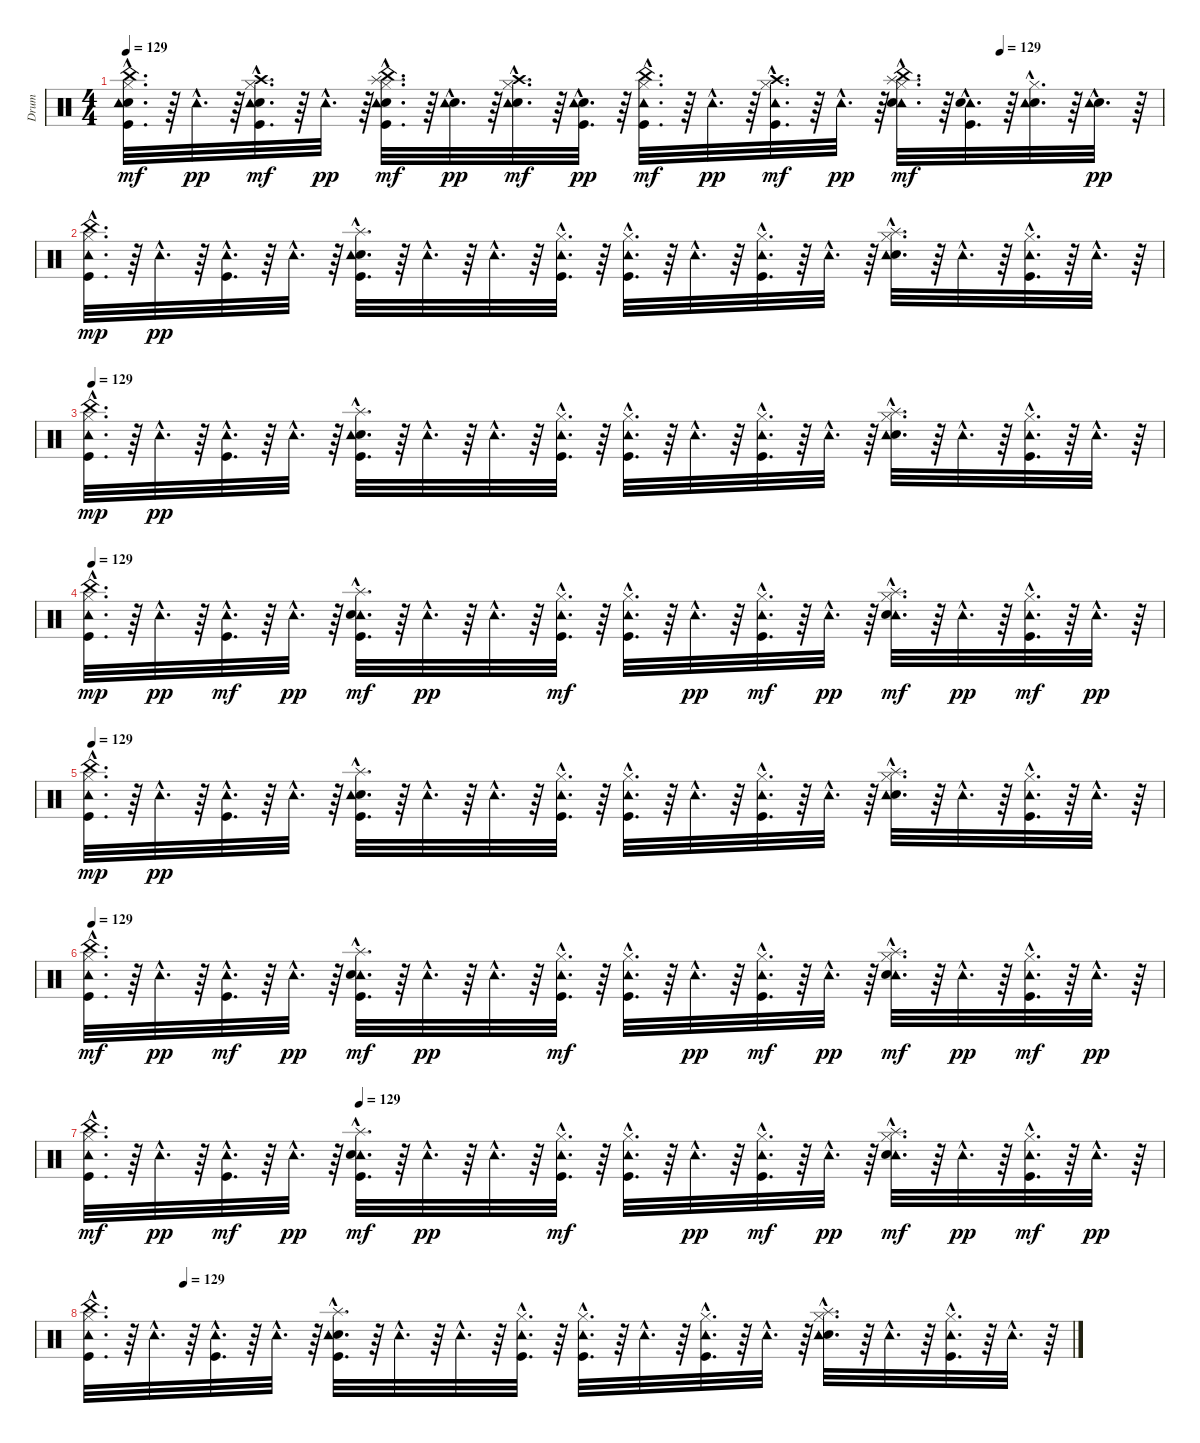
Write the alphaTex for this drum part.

\track ("Drum" "Drum") {instrument percussion}
\staff {score}
\articulation defaults
\ts (4 4)
\tempo 129
\tempo (129 0.84375)
\clef neutral
\ks c
("China (hit)"{hac} "Snare (hit) 2"{hac} "Tambourine (hit)"{hac} "Kick (hit)"{hac} "Hi-Hat (closed)"{hac}).32{d dy mf} r.64 "Tambourine (hit)"{hac}.32{d dy pp} r.64 ("Crash high (hit)"{hac} "Snare (hit) 2"{hac} "Kick (hit)"{hac} "Tambourine (hit)"{hac} "Hi-Hat (closed)"{hac}).32{d dy mf} r.64 "Tambourine (hit)"{hac}.32{d dy pp} r.64 ("China (hit)"{hac} "Snare (hit) 2"{hac} "Splash (hit)"{hac} "Kick (hit)"{hac} "Tambourine (hit)"{hac} "Hi-Hat (closed)"{hac}).32{d dy mf} r.64 ("Snare (hit) 2"{hac} "Tambourine (hit)"{hac}).32{d dy pp} r.64 ("Crash high (hit)"{hac} "Snare (hit) 2"{hac} "Tambourine (hit)"{hac} "Hi-Hat (closed)"{hac}).32{d dy mf} r.64 ("Snare (hit) 2"{hac} "Kick (hit)"{hac} "Tambourine (hit)"{hac}).32{d dy pp} r.64 ("China (hit)"{hac} "Tambourine (hit)"{hac} "Hi-Hat (closed)"{hac} "Kick (hit)"{hac}).32{d dy mf} r.64 "Tambourine (hit)"{hac}.32{d dy pp} r.64 ("Crash high (hit)"{hac} "Tambourine (hit)"{hac} "Hi-Hat (closed)"{hac} "Kick (hit)"{hac}).32{d dy mf} r.64 "Tambourine (hit)"{hac}.32{d dy pp} r.64 ("China (hit)"{hac} "Tambourine (hit)"{hac} "Hi-Hat (closed)"{hac} "Snare (hit) 2"{hac} "Splash (hit)"{hac}).32{d dy mf} r.64 ("Tambourine (hit)"{hac} "Snare (hit) 2"{hac} "Kick (hit)"{hac}).32{d} r.64 ("Snare (hit) 2"{hac} "Tambourine (hit)"{hac} "Hi-Hat (closed)"{hac}).32{d} r.64 ("Snare (hit) 2"{hac} "Tambourine (hit)"{hac}).32{d dy pp} r.64 |
("Kick (hit)"{hac} "Hi-Hat (closed)"{hac} "Tambourine (hit)"{hac} "China (hit)"{hac}).32{d dy mp} r.64 "Tambourine (hit)"{hac}.32{d dy pp} r.64 ("Kick (hit)"{hac} "Tambourine (hit)"{hac}).32{d} r.64 "Tambourine (hit)"{hac}.32{d} r.64 ("Splash (hit)"{hac} "Snare (hit) 2"{hac} "Kick (hit)"{hac} "Tambourine (hit)"{hac}).32{d} r.64 "Tambourine (hit)"{hac}.32{d} r.64 "Tambourine (hit)"{hac}.32{d} r.64 ("Kick (hit)"{hac} "Hi-Hat (closed)"{hac} "Tambourine (hit)"{hac}).32{d} r.64 ("Kick (hit)"{hac} "Hi-Hat (closed)"{hac} "Tambourine (hit)"{hac}).32{d} r.64 "Tambourine (hit)"{hac}.32{d} r.64 ("Kick (hit)"{hac} "Hi-Hat (closed)"{hac} "Tambourine (hit)"{hac}).32{d} r.64 "Tambourine (hit)"{hac}.32{d} r.64 ("Splash (hit)"{hac} "Snare (hit) 2"{hac} "Hi-Hat (closed)"{hac} "Tambourine (hit)"{hac}).32{d} r.64 "Tambourine (hit)"{hac}.32{d} r.64 ("Kick (hit)"{hac} "Hi-Hat (closed)"{hac} "Tambourine (hit)"{hac}).32{d} r.64 "Tambourine (hit)"{hac}.32{d} r.64 |
\tempo 129
("Kick (hit)"{hac} "Hi-Hat (closed)"{hac} "Tambourine (hit)"{hac} "China (hit)"{hac}).32{d dy mp} r.64 "Tambourine (hit)"{hac}.32{d dy pp} r.64 ("Kick (hit)"{hac} "Tambourine (hit)"{hac}).32{d} r.64 "Tambourine (hit)"{hac}.32{d} r.64 ("Splash (hit)"{hac} "Snare (hit) 2"{hac} "Kick (hit)"{hac} "Tambourine (hit)"{hac}).32{d} r.64 "Tambourine (hit)"{hac}.32{d} r.64 "Tambourine (hit)"{hac}.32{d} r.64 ("Kick (hit)"{hac} "Hi-Hat (closed)"{hac} "Tambourine (hit)"{hac}).32{d} r.64 ("Kick (hit)"{hac} "Hi-Hat (closed)"{hac} "Tambourine (hit)"{hac}).32{d} r.64 "Tambourine (hit)"{hac}.32{d} r.64 ("Kick (hit)"{hac} "Hi-Hat (closed)"{hac} "Tambourine (hit)"{hac}).32{d} r.64 "Tambourine (hit)"{hac}.32{d} r.64 ("Splash (hit)"{hac} "Snare (hit) 2"{hac} "Hi-Hat (closed)"{hac} "Tambourine (hit)"{hac}).32{d} r.64 "Tambourine (hit)"{hac}.32{d} r.64 ("Kick (hit)"{hac} "Hi-Hat (closed)"{hac} "Tambourine (hit)"{hac}).32{d} r.64 "Tambourine (hit)"{hac}.32{d} r.64 |
\tempo 129
("Tambourine (hit)"{hac} "Hi-Hat (closed)"{hac} "Kick (hit)"{hac} "China (hit)"{hac}).32{d dy mp} r.64 "Tambourine (hit)"{hac}.32{d dy pp} r.64 ("Tambourine (hit)"{hac} "Kick (hit)"{hac}).32{d dy mf} r.64 "Tambourine (hit)"{hac}.32{d dy pp} r.64 ("Tambourine (hit)"{hac} "Kick (hit)"{hac} "Snare (hit) 2"{hac} "Splash (hit)"{hac}).32{d dy mf} r.64 "Tambourine (hit)"{hac}.32{d dy pp} r.64 "Tambourine (hit)"{hac}.32{d} r.64 ("Tambourine (hit)"{hac} "Hi-Hat (closed)"{hac} "Kick (hit)"{hac}).32{d dy mf} r.64 ("Tambourine (hit)"{hac} "Hi-Hat (closed)"{hac} "Kick (hit)"{hac}).32{d} r.64 "Tambourine (hit)"{hac}.32{d dy pp} r.64 ("Tambourine (hit)"{hac} "Hi-Hat (closed)"{hac} "Kick (hit)"{hac}).32{d dy mf} r.64 "Tambourine (hit)"{hac}.32{d dy pp} r.64 ("Tambourine (hit)"{hac} "Hi-Hat (closed)"{hac} "Snare (hit) 2"{hac} "Splash (hit)"{hac}).32{d dy mf} r.64 "Tambourine (hit)"{hac}.32{d dy pp} r.64 ("Tambourine (hit)"{hac} "Hi-Hat (closed)"{hac} "Kick (hit)"{hac}).32{d dy mf} r.64 "Tambourine (hit)"{hac}.32{d dy pp} r.64 |
\tempo 129
("Kick (hit)"{hac} "Hi-Hat (closed)"{hac} "Tambourine (hit)"{hac} "China (hit)"{hac}).32{d dy mp} r.64 "Tambourine (hit)"{hac}.32{d dy pp} r.64 ("Kick (hit)"{hac} "Tambourine (hit)"{hac}).32{d} r.64 "Tambourine (hit)"{hac}.32{d} r.64 ("Splash (hit)"{hac} "Snare (hit) 2"{hac} "Kick (hit)"{hac} "Tambourine (hit)"{hac}).32{d} r.64 "Tambourine (hit)"{hac}.32{d} r.64 "Tambourine (hit)"{hac}.32{d} r.64 ("Kick (hit)"{hac} "Hi-Hat (closed)"{hac} "Tambourine (hit)"{hac}).32{d} r.64 ("Kick (hit)"{hac} "Hi-Hat (closed)"{hac} "Tambourine (hit)"{hac}).32{d} r.64 "Tambourine (hit)"{hac}.32{d} r.64 ("Kick (hit)"{hac} "Hi-Hat (closed)"{hac} "Tambourine (hit)"{hac}).32{d} r.64 "Tambourine (hit)"{hac}.32{d} r.64 ("Splash (hit)"{hac} "Snare (hit) 2"{hac} "Hi-Hat (closed)"{hac} "Tambourine (hit)"{hac}).32{d} r.64 "Tambourine (hit)"{hac}.32{d} r.64 ("Kick (hit)"{hac} "Hi-Hat (closed)"{hac} "Tambourine (hit)"{hac}).32{d} r.64 "Tambourine (hit)"{hac}.32{d} r.64 |
\tempo 129
("China (hit)"{hac} "Tambourine (hit)"{hac} "Hi-Hat (closed)"{hac} "Kick (hit)"{hac}).32{d dy mf} r.64 "Tambourine (hit)"{hac}.32{d dy pp} r.64 ("Tambourine (hit)"{hac} "Kick (hit)"{hac}).32{d dy mf} r.64 "Tambourine (hit)"{hac}.32{d dy pp} r.64 ("Tambourine (hit)"{hac} "Kick (hit)"{hac} "Snare (hit) 2"{hac} "Splash (hit)"{hac}).32{d dy mf} r.64 "Tambourine (hit)"{hac}.32{d dy pp} r.64 "Tambourine (hit)"{hac}.32{d} r.64 ("Tambourine (hit)"{hac} "Hi-Hat (closed)"{hac} "Kick (hit)"{hac}).32{d dy mf} r.64 ("Tambourine (hit)"{hac} "Hi-Hat (closed)"{hac} "Kick (hit)"{hac}).32{d} r.64 "Tambourine (hit)"{hac}.32{d dy pp} r.64 ("Tambourine (hit)"{hac} "Hi-Hat (closed)"{hac} "Kick (hit)"{hac}).32{d dy mf} r.64 "Tambourine (hit)"{hac}.32{d dy pp} r.64 ("Tambourine (hit)"{hac} "Hi-Hat (closed)"{hac} "Snare (hit) 2"{hac} "Splash (hit)"{hac}).32{d dy mf} r.64 "Tambourine (hit)"{hac}.32{d dy pp} r.64 ("Tambourine (hit)"{hac} "Hi-Hat (closed)"{hac} "Kick (hit)"{hac}).32{d dy mf} r.64 "Tambourine (hit)"{hac}.32{d dy pp} r.64 |
\tempo (129 0.25)
("China (hit)"{hac} "Tambourine (hit)"{hac} "Hi-Hat (closed)"{hac} "Kick (hit)"{hac}).32{d dy mf} r.64 "Tambourine (hit)"{hac}.32{d dy pp} r.64 ("Tambourine (hit)"{hac} "Kick (hit)"{hac}).32{d dy mf} r.64 "Tambourine (hit)"{hac}.32{d dy pp} r.64 ("Tambourine (hit)"{hac} "Kick (hit)"{hac} "Snare (hit) 2"{hac} "Splash (hit)"{hac}).32{d dy mf} r.64 "Tambourine (hit)"{hac}.32{d dy pp} r.64 "Tambourine (hit)"{hac}.32{d} r.64 ("Tambourine (hit)"{hac} "Hi-Hat (closed)"{hac} "Kick (hit)"{hac}).32{d dy mf} r.64 ("Tambourine (hit)"{hac} "Hi-Hat (closed)"{hac} "Kick (hit)"{hac}).32{d} r.64 "Tambourine (hit)"{hac}.32{d dy pp} r.64 ("Tambourine (hit)"{hac} "Hi-Hat (closed)"{hac} "Kick (hit)"{hac}).32{d dy mf} r.64 "Tambourine (hit)"{hac}.32{d dy pp} r.64 ("Tambourine (hit)"{hac} "Hi-Hat (closed)"{hac} "Snare (hit) 2"{hac} "Splash (hit)"{hac}).32{d dy mf} r.64 "Tambourine (hit)"{hac}.32{d dy pp} r.64 ("Tambourine (hit)"{hac} "Hi-Hat (closed)"{hac} "Kick (hit)"{hac}).32{d dy mf} r.64 "Tambourine (hit)"{hac}.32{d dy pp} r.64 |
\tempo (129 0.09375)
("China (hit)"{hac} "Kick (hit)"{hac} "Hi-Hat (closed)"{hac} "Tambourine (hit)"{hac}).32{d} r.64 "Tambourine (hit)"{hac}.32{d} r.64 ("Kick (hit)"{hac} "Tambourine (hit)"{hac}).32{d} r.64 "Tambourine (hit)"{hac}.32{d} r.64 ("Splash (hit)"{hac} "Snare (hit) 2"{hac} "Kick (hit)"{hac} "Tambourine (hit)"{hac}).32{d} r.64 "Tambourine (hit)"{hac}.32{d} r.64 "Tambourine (hit)"{hac}.32{d} r.64 ("Kick (hit)"{hac} "Hi-Hat (closed)"{hac} "Tambourine (hit)"{hac}).32{d} r.64 ("Kick (hit)"{hac} "Hi-Hat (closed)"{hac} "Tambourine (hit)"{hac}).32{d} r.64 "Tambourine (hit)"{hac}.32{d} r.64 ("Kick (hit)"{hac} "Hi-Hat (closed)"{hac} "Tambourine (hit)"{hac}).32{d} r.64 "Tambourine (hit)"{hac}.32{d} r.64 ("Splash (hit)"{hac} "Snare (hit) 2"{hac} "Hi-Hat (closed)"{hac} "Tambourine (hit)"{hac}).32{d} r.64 "Tambourine (hit)"{hac}.32{d} r.64 ("Kick (hit)"{hac} "Hi-Hat (closed)"{hac} "Tambourine (hit)"{hac}).32{d} r.64 "Tambourine (hit)"{hac}.32{d} r.64
